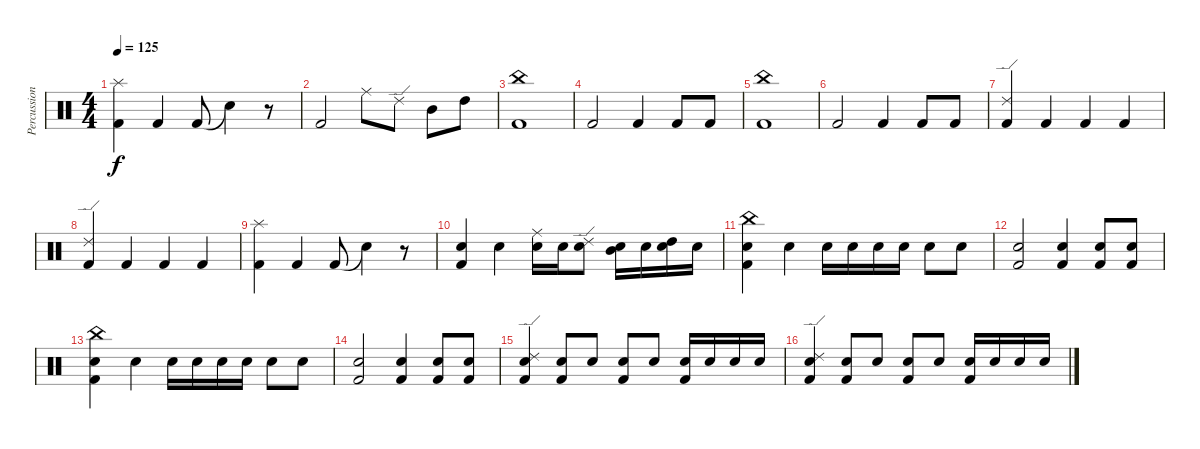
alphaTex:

\track ("Percussion" "Percussion") {instrument percussion}
\staff {score}
\articulation defaults
\ts (4 4)
\tempo 125
\clef neutral
\ks c
("Kick (hit) 2" "Splash (hit)").4{dy f} "Kick (hit) 2".4 "Kick (hit) 2".8 "Snare (hit)"{t}.4 r.8 |
"Kick (hit) 2".2 "Ride (middle)".8 "Ride (edge) 2".8 "Mid Tom (hit)".8 "High Tom (hit)".8 |
("Kick (hit) 2" "China (hit)").1 |
"Kick (hit) 2".2 "Kick (hit) 2".4 "Kick (hit) 2".8 "Kick (hit) 2".8 |
("Kick (hit) 2" "China (hit)").1 |
"Kick (hit) 2".2 "Kick (hit) 2".4 "Kick (hit) 2".8 "Kick (hit) 2".8 |
("Kick (hit) 2" "Ride (edge) 2").4 "Kick (hit) 2".4 "Kick (hit) 2".4 "Kick (hit) 2".4 |
("Kick (hit) 2" "Ride (edge) 2").4 "Kick (hit) 2".4 "Kick (hit) 2".4 "Kick (hit) 2".4 |
("Kick (hit) 2" "Splash (hit)").4 "Kick (hit) 2".4 "Kick (hit) 2".8 "Snare (hit)"{t}.4 r.8 |
("Kick (hit) 2" "Snare (hit) 2").4 "Snare (hit) 2".4 ("Ride (middle)" "Snare (hit) 2").16 "Snare (hit) 2".16 ("Ride (edge) 2" "Snare (hit) 2").8 ("Mid Tom (hit)" "Snare (hit) 2").16 "Snare (hit) 2".16 ("High Tom (hit)" "Snare (hit) 2").16 "Snare (hit) 2".16 |
("Kick (hit) 2" "Snare (hit) 2" "China (hit)").4 "Snare (hit) 2".4 "Snare (hit) 2".16 "Snare (hit) 2".16 "Snare (hit) 2".16 "Snare (hit) 2".16 "Snare (hit) 2".8 "Snare (hit) 2".8 |
("Kick (hit) 2" "Snare (hit) 2").2 ("Kick (hit) 2" "Snare (hit) 2").4 ("Kick (hit) 2" "Snare (hit) 2").8 ("Kick (hit) 2" "Snare (hit) 2").8 |
("Kick (hit) 2" "Snare (hit) 2" "China (hit)").4 "Snare (hit) 2".4 "Snare (hit) 2".16 "Snare (hit) 2".16 "Snare (hit) 2".16 "Snare (hit) 2".16 "Snare (hit) 2".8 "Snare (hit) 2".8 |
("Kick (hit) 2" "Snare (hit) 2").2 ("Kick (hit) 2" "Snare (hit) 2").4 ("Kick (hit) 2" "Snare (hit) 2").8 ("Kick (hit) 2" "Snare (hit) 2").8 |
("Kick (hit) 2" "Snare (hit) 2" "Ride (edge) 2").4 ("Kick (hit) 2" "Snare (hit) 2").8 "Snare (hit) 2".8 ("Kick (hit) 2" "Snare (hit) 2").8 "Snare (hit) 2".8 ("Kick (hit) 2" "Snare (hit) 2").16 "Snare (hit) 2".16 "Snare (hit) 2".16 "Snare (hit) 2".16 |
("Kick (hit) 2" "Snare (hit) 2" "Ride (edge) 2").4 ("Kick (hit) 2" "Snare (hit) 2").8 "Snare (hit) 2".8 ("Kick (hit) 2" "Snare (hit) 2").8 "Snare (hit) 2".8 ("Kick (hit) 2" "Snare (hit) 2").16 "Snare (hit) 2".16 "Snare (hit) 2".16 "Snare (hit) 2".16
